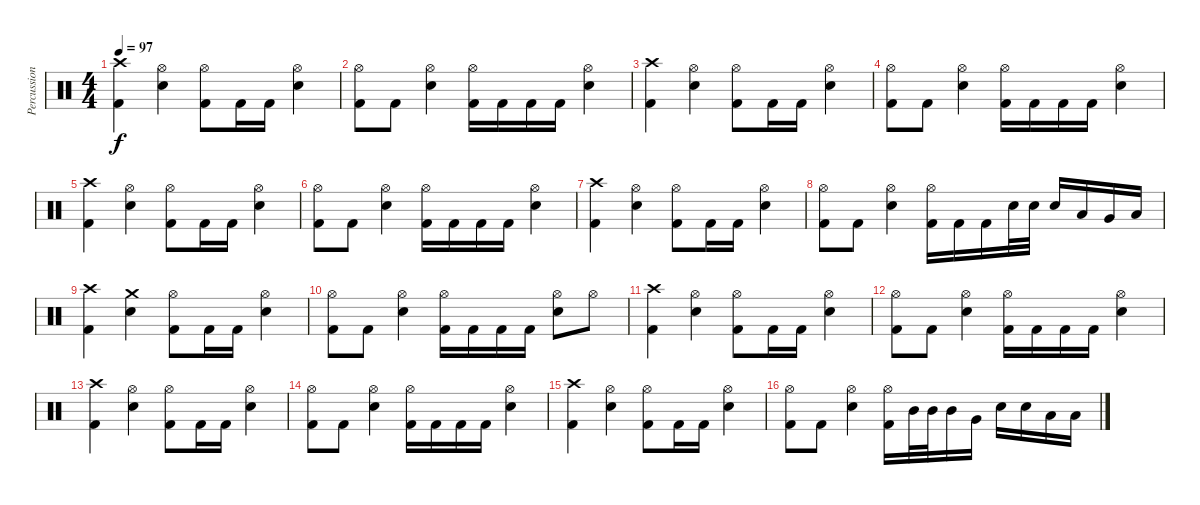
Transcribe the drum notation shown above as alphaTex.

\track ("Percussion" "Percussion") {instrument percussion}
\staff {score}
\articulation defaults
\ts (4 4)
\tempo 97
\clef neutral
\ks c
("Crash high (hit)" "Kick (hit) 2").4{dy f} ("Hi-Hat (open)" "Snare (hit) 2").4 ("Hi-Hat (open)" "Kick (hit) 2").8 "Kick (hit) 2".16 "Kick (hit) 2".16 ("Hi-Hat (open)" "Snare (hit) 2").4 |
("Hi-Hat (open)" "Kick (hit) 2").8 "Kick (hit) 2".8 ("Hi-Hat (open)" "Snare (hit) 2").4 ("Hi-Hat (open)" "Kick (hit) 2").16 "Kick (hit) 2".16 "Kick (hit) 2".16 "Kick (hit) 2".16 ("Hi-Hat (open)" "Snare (hit) 2").4 |
("Crash high (hit)" "Kick (hit) 2").4 ("Hi-Hat (open)" "Snare (hit) 2").4 ("Hi-Hat (open)" "Kick (hit) 2").8 "Kick (hit) 2".16 "Kick (hit) 2".16 ("Hi-Hat (open)" "Snare (hit) 2").4 |
("Hi-Hat (open)" "Kick (hit) 2").8 "Kick (hit) 2".8 ("Hi-Hat (open)" "Snare (hit) 2").4 ("Hi-Hat (open)" "Kick (hit) 2").16 "Kick (hit) 2".16 "Kick (hit) 2".16 "Kick (hit) 2".16 ("Hi-Hat (open)" "Snare (hit) 2").4 |
("Crash high (hit)" "Kick (hit) 2").4 ("Hi-Hat (open)" "Snare (hit) 2").4 ("Hi-Hat (open)" "Kick (hit) 2").8 "Kick (hit) 2".16 "Kick (hit) 2".16 ("Hi-Hat (open)" "Snare (hit) 2").4 |
("Hi-Hat (open)" "Kick (hit) 2").8 "Kick (hit) 2".8 ("Hi-Hat (open)" "Snare (hit) 2").4 ("Hi-Hat (open)" "Kick (hit) 2").16 "Kick (hit) 2".16 "Kick (hit) 2".16 "Kick (hit) 2".16 ("Hi-Hat (open)" "Snare (hit) 2").4 |
("Crash high (hit)" "Kick (hit) 2").4 ("Hi-Hat (open)" "Snare (hit) 2").4 ("Hi-Hat (open)" "Kick (hit) 2").8 "Kick (hit) 2".16 "Kick (hit) 2".16 ("Hi-Hat (open)" "Snare (hit) 2").4 |
("Hi-Hat (open)" "Kick (hit) 2").8 "Kick (hit) 2".8 ("Hi-Hat (open)" "Snare (hit) 2").4 ("Hi-Hat (open)" "Kick (hit) 2").16 "Kick (hit) 2".16 "Kick (hit) 2".16 "Snare (hit) 2".32 "Snare (hit) 2".32 "Snare (hit) 2".16 "Low Tom (hit)".16 "Very Low Tom (hit)".16 "Low Floor Tom (hit)".16 |
("Crash high (hit)" "Kick (hit) 2").4 ("Crash medium (hit)" "Snare (hit) 2").4 ("Hi-Hat (open)" "Kick (hit) 2").8 "Kick (hit) 2".16 "Kick (hit) 2".16 ("Hi-Hat (open)" "Snare (hit) 2").4 |
("Hi-Hat (open)" "Kick (hit) 2").8 "Kick (hit) 2".8 ("Hi-Hat (open)" "Snare (hit) 2").4 ("Hi-Hat (open)" "Kick (hit) 2").16 "Kick (hit) 2".16 "Kick (hit) 2".16 "Kick (hit) 2".16 ("Hi-Hat (open)" "Snare (hit) 2").8 "Hi-Hat (open)".8 |
("Crash high (hit)" "Kick (hit) 2").4 ("Hi-Hat (open)" "Snare (hit) 2").4 ("Hi-Hat (open)" "Kick (hit) 2").8 "Kick (hit) 2".16 "Kick (hit) 2".16 ("Hi-Hat (open)" "Snare (hit) 2").4 |
("Hi-Hat (open)" "Kick (hit) 2").8 "Kick (hit) 2".8 ("Hi-Hat (open)" "Snare (hit) 2").4 ("Hi-Hat (open)" "Kick (hit) 2").16 "Kick (hit) 2".16 "Kick (hit) 2".16 "Kick (hit) 2".16 ("Hi-Hat (open)" "Snare (hit) 2").4 |
("Crash high (hit)" "Kick (hit) 2").4 ("Hi-Hat (open)" "Snare (hit) 2").4 ("Hi-Hat (open)" "Kick (hit) 2").8 "Kick (hit) 2".16 "Kick (hit) 2".16 ("Hi-Hat (open)" "Snare (hit) 2").4 |
("Hi-Hat (open)" "Kick (hit) 2").8 "Kick (hit) 2".8 ("Hi-Hat (open)" "Snare (hit) 2").4 ("Hi-Hat (open)" "Kick (hit) 2").16 "Kick (hit) 2".16 "Kick (hit) 2".16 "Kick (hit) 2".16 ("Hi-Hat (open)" "Snare (hit) 2").4 |
("Crash high (hit)" "Kick (hit) 2").4 ("Hi-Hat (open)" "Snare (hit) 2").4 ("Hi-Hat (open)" "Kick (hit) 2").8 "Kick (hit) 2".16 "Kick (hit) 2".16 ("Hi-Hat (open)" "Snare (hit) 2").4 |
("Hi-Hat (open)" "Kick (hit) 2").8 "Kick (hit) 2".8 ("Hi-Hat (open)" "Snare (hit) 2").4 ("Hi-Hat (open)" "Kick (hit) 2").16 "Mid Tom (hit)".32 "Mid Tom (hit)".32 "Mid Tom (hit)".16 "Very Low Tom (hit)".16 "Snare (hit) 2".16 "Snare (hit) 2".16 "Low Floor Tom (hit)".16 "Low Floor Tom (hit)".16
